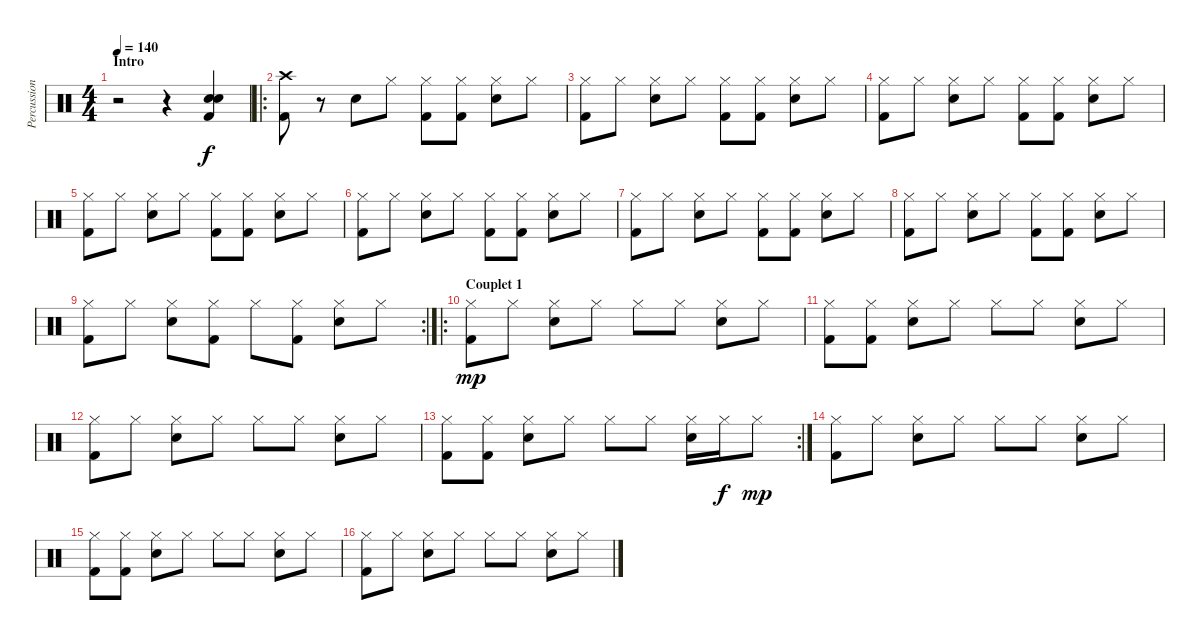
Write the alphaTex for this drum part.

\track ("Percussions" "Percussion") {instrument percussion}
\staff {score}
\articulation defaults
\ts (4 4)
\section ("" "Intro")
\tempo 140
\clef neutral
\ks c
r.2{dy f} r.4 ("Snare (hit) 2" "Electric Snare (hit)" "Kick (hit) 2").4 |
\ro
("Crash high (hit)" "Kick (hit) 2").8 r.8 "Electric Snare (hit)".8 "Hi-Hat (closed)".8 ("Hi-Hat (closed)" "Kick (hit) 2").8 ("Hi-Hat (closed)" "Kick (hit) 2").8 ("Hi-Hat (closed)" "Electric Snare (hit)").8 "Hi-Hat (closed)".8 |
("Hi-Hat (closed)" "Kick (hit) 2").8 "Hi-Hat (closed)".8 ("Hi-Hat (closed)" "Electric Snare (hit)").8 "Hi-Hat (closed)".8 ("Hi-Hat (closed)" "Kick (hit) 2").8 ("Hi-Hat (closed)" "Kick (hit) 2").8 ("Hi-Hat (closed)" "Electric Snare (hit)").8 "Hi-Hat (closed)".8 |
("Hi-Hat (closed)" "Kick (hit) 2").8 "Hi-Hat (closed)".8 ("Hi-Hat (closed)" "Electric Snare (hit)").8 "Hi-Hat (closed)".8 ("Hi-Hat (closed)" "Kick (hit) 2").8 ("Hi-Hat (closed)" "Kick (hit) 2").8 ("Hi-Hat (closed)" "Electric Snare (hit)").8 "Hi-Hat (closed)".8 |
("Hi-Hat (closed)" "Kick (hit) 2").8 "Hi-Hat (closed)".8 ("Hi-Hat (closed)" "Electric Snare (hit)").8 "Hi-Hat (closed)".8 ("Hi-Hat (closed)" "Kick (hit) 2").8 ("Hi-Hat (closed)" "Kick (hit) 2").8 ("Hi-Hat (closed)" "Electric Snare (hit)").8 "Hi-Hat (closed)".8 |
("Hi-Hat (closed)" "Kick (hit) 2").8 "Hi-Hat (closed)".8 ("Hi-Hat (closed)" "Electric Snare (hit)").8 "Hi-Hat (closed)".8 ("Hi-Hat (closed)" "Kick (hit) 2").8 ("Hi-Hat (closed)" "Kick (hit) 2").8 ("Hi-Hat (closed)" "Electric Snare (hit)").8 "Hi-Hat (closed)".8 |
("Hi-Hat (closed)" "Kick (hit) 2").8 "Hi-Hat (closed)".8 ("Hi-Hat (closed)" "Electric Snare (hit)").8 "Hi-Hat (closed)".8 ("Hi-Hat (closed)" "Kick (hit) 2").8 ("Hi-Hat (closed)" "Kick (hit) 2").8 ("Hi-Hat (closed)" "Electric Snare (hit)").8 "Hi-Hat (closed)".8 |
("Hi-Hat (closed)" "Kick (hit) 2").8 "Hi-Hat (closed)".8 ("Hi-Hat (closed)" "Electric Snare (hit)").8 "Hi-Hat (closed)".8 ("Hi-Hat (closed)" "Kick (hit) 2").8 ("Hi-Hat (closed)" "Kick (hit) 2").8 ("Hi-Hat (closed)" "Electric Snare (hit)").8 "Hi-Hat (closed)".8 |
\rc 2
("Hi-Hat (closed)" "Kick (hit) 2").8 "Hi-Hat (closed)".8 ("Hi-Hat (closed)" "Electric Snare (hit)").8 ("Hi-Hat (closed)" "Kick (hit) 2").8 "Hi-Hat (closed)".8 ("Hi-Hat (closed)" "Kick (hit) 2").8 ("Hi-Hat (closed)" "Electric Snare (hit)").8 "Hi-Hat (closed)".8 |
\ro
\section ("" "Couplet 1")
("Hi-Hat (closed)" "Kick (hit) 2").8{dy mp} "Hi-Hat (closed)".8 ("Hi-Hat (closed)" "Electric Snare (hit)").8 "Hi-Hat (closed)".8 "Hi-Hat (closed)".8 "Hi-Hat (closed)".8 ("Hi-Hat (closed)" "Electric Snare (hit)").8 "Hi-Hat (closed)".8 |
("Hi-Hat (closed)" "Kick (hit) 2").8 ("Hi-Hat (closed)" "Kick (hit) 2").8 ("Hi-Hat (closed)" "Electric Snare (hit)").8 "Hi-Hat (closed)".8 "Hi-Hat (closed)".8 "Hi-Hat (closed)".8 ("Hi-Hat (closed)" "Electric Snare (hit)").8 "Hi-Hat (closed)".8 |
("Hi-Hat (closed)" "Kick (hit) 2").8 "Hi-Hat (closed)".8 ("Hi-Hat (closed)" "Electric Snare (hit)").8 "Hi-Hat (closed)".8 "Hi-Hat (closed)".8 "Hi-Hat (closed)".8 ("Hi-Hat (closed)" "Electric Snare (hit)").8 "Hi-Hat (closed)".8 |
\rc 2
("Hi-Hat (closed)" "Kick (hit) 2").8 ("Hi-Hat (closed)" "Kick (hit) 2").8 ("Hi-Hat (closed)" "Electric Snare (hit)").8 "Hi-Hat (closed)".8 "Hi-Hat (closed)".8 "Hi-Hat (closed)".8 ("Hi-Hat (closed)" "Electric Snare (hit)").16 "Hi-Hat (closed)".16{dy f} "Hi-Hat (closed)".8{dy mp} |
("Hi-Hat (closed)" "Kick (hit) 2").8 "Hi-Hat (closed)".8 ("Hi-Hat (closed)" "Electric Snare (hit)").8 "Hi-Hat (closed)".8 "Hi-Hat (closed)".8 "Hi-Hat (closed)".8 ("Hi-Hat (closed)" "Electric Snare (hit)").8 "Hi-Hat (closed)".8 |
("Hi-Hat (closed)" "Kick (hit) 2").8 ("Hi-Hat (closed)" "Kick (hit) 2").8 ("Hi-Hat (closed)" "Electric Snare (hit)").8 "Hi-Hat (closed)".8 "Hi-Hat (closed)".8 "Hi-Hat (closed)".8 ("Hi-Hat (closed)" "Electric Snare (hit)").8 "Hi-Hat (closed)".8 |
("Hi-Hat (closed)" "Kick (hit) 2").8 "Hi-Hat (closed)".8 ("Hi-Hat (closed)" "Electric Snare (hit)").8 "Hi-Hat (closed)".8 "Hi-Hat (closed)".8 "Hi-Hat (closed)".8 ("Hi-Hat (closed)" "Electric Snare (hit)").8 "Hi-Hat (closed)".8
